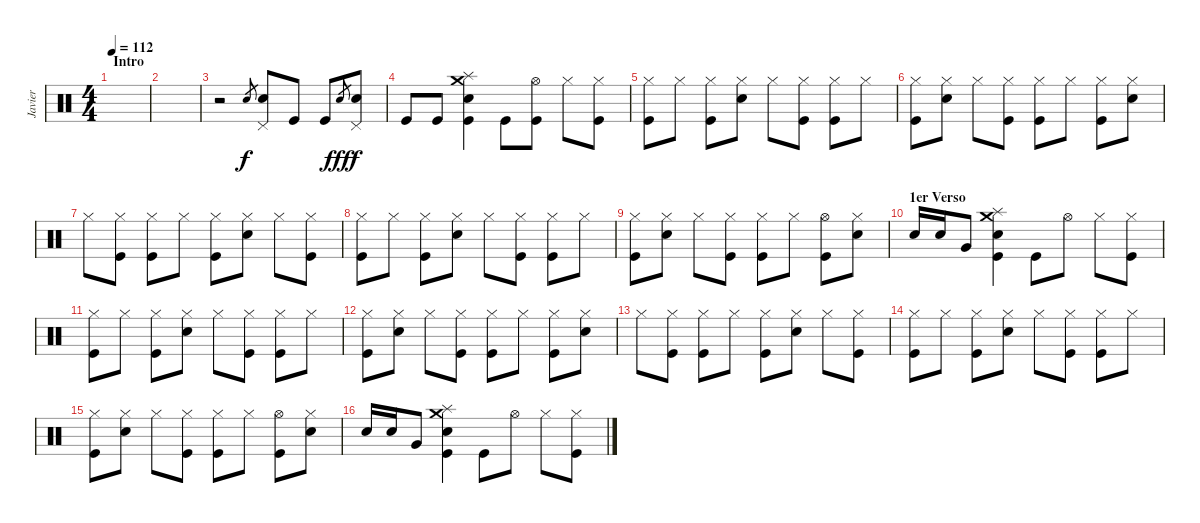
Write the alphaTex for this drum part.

\track ("Javier" "Javier") {instrument percussion}
\staff {score}
\articulation defaults
\ts (4 4)
\section ("" "Intro")
\tempo 112
\clef neutral
\ks c
|
|
r.2 "Snare (hit) 2".8{gr} ("Pedal Hi-Hat (hit)" "Snare (hit) 2").8{dy f} "Kick (hit)".8 "Kick (hit)".8 "Snare (hit) 2".8{gr dy fff} ("Pedal Hi-Hat (hit)" "Snare (hit) 2").8{dy f} |
"Kick (hit)".8 "Kick (hit)".8 ("Crash medium (hit)" "Splash (hit)" "Snare (hit) 2" "Kick (hit)").4 "Kick (hit)".8 ("Hi-Hat (open)" "Kick (hit)").8 "Hi-Hat (closed)".8 ("Hi-Hat (closed)" "Kick (hit)").8 |
("Hi-Hat (closed)" "Kick (hit)").8 "Hi-Hat (closed)".8 ("Hi-Hat (closed)" "Kick (hit)").8 ("Hi-Hat (closed)" "Snare (hit) 2").8 "Hi-Hat (closed)".8 ("Hi-Hat (closed)" "Kick (hit)").8 ("Hi-Hat (closed)" "Kick (hit)").8 "Hi-Hat (closed)".8 |
("Hi-Hat (closed)" "Kick (hit)").8 ("Hi-Hat (closed)" "Snare (hit) 2").8 "Hi-Hat (closed)".8 ("Hi-Hat (closed)" "Kick (hit)").8 ("Hi-Hat (closed)" "Kick (hit)").8 "Hi-Hat (closed)".8 ("Hi-Hat (closed)" "Kick (hit)").8 ("Hi-Hat (closed)" "Snare (hit) 2").8 |
"Hi-Hat (closed)".8 ("Hi-Hat (closed)" "Kick (hit)").8 ("Hi-Hat (closed)" "Kick (hit)").8 "Hi-Hat (closed)".8 ("Hi-Hat (closed)" "Kick (hit)").8 ("Hi-Hat (closed)" "Snare (hit) 2").8 "Hi-Hat (closed)".8 ("Hi-Hat (closed)" "Kick (hit)").8 |
("Hi-Hat (closed)" "Kick (hit)").8 "Hi-Hat (closed)".8 ("Hi-Hat (closed)" "Kick (hit)").8 ("Hi-Hat (closed)" "Snare (hit) 2").8 "Hi-Hat (closed)".8 ("Hi-Hat (closed)" "Kick (hit)").8 ("Hi-Hat (closed)" "Kick (hit)").8 "Hi-Hat (closed)".8 |
("Hi-Hat (closed)" "Kick (hit)").8 ("Hi-Hat (closed)" "Snare (hit) 2").8 "Hi-Hat (closed)".8 ("Hi-Hat (closed)" "Kick (hit)").8 ("Hi-Hat (closed)" "Kick (hit)").8 "Hi-Hat (closed)".8 ("Hi-Hat (open)" "Kick (hit)").8 ("Hi-Hat (closed)" "Snare (hit) 2").8 |
\section ("" "1er Verso")
"Snare (hit) 2".16 "Snare (hit) 2".16 "Very Low Tom (hit)".8 ("Crash medium (hit)" "Splash (hit)" "Snare (hit) 2" "Kick (hit)").4 "Kick (hit)".8 "Hi-Hat (open)".8 "Hi-Hat (closed)".8 ("Hi-Hat (closed)" "Kick (hit)").8 |
("Hi-Hat (closed)" "Kick (hit)").8 "Hi-Hat (closed)".8 ("Hi-Hat (closed)" "Kick (hit)").8 ("Hi-Hat (closed)" "Snare (hit) 2").8 "Hi-Hat (closed)".8 ("Hi-Hat (closed)" "Kick (hit)").8 ("Hi-Hat (closed)" "Kick (hit)").8 "Hi-Hat (closed)".8 |
("Hi-Hat (closed)" "Kick (hit)").8 ("Hi-Hat (closed)" "Snare (hit) 2").8 "Hi-Hat (closed)".8 ("Hi-Hat (closed)" "Kick (hit)").8 ("Hi-Hat (closed)" "Kick (hit)").8 "Hi-Hat (closed)".8 ("Hi-Hat (closed)" "Kick (hit)").8 ("Hi-Hat (closed)" "Snare (hit) 2").8 |
"Hi-Hat (closed)".8 ("Hi-Hat (closed)" "Kick (hit)").8 ("Hi-Hat (closed)" "Kick (hit)").8 "Hi-Hat (closed)".8 ("Hi-Hat (closed)" "Kick (hit)").8 ("Hi-Hat (closed)" "Snare (hit) 2").8 "Hi-Hat (closed)".8 ("Hi-Hat (closed)" "Kick (hit)").8 |
("Hi-Hat (closed)" "Kick (hit)").8 "Hi-Hat (closed)".8 ("Hi-Hat (closed)" "Kick (hit)").8 ("Hi-Hat (closed)" "Snare (hit) 2").8 "Hi-Hat (closed)".8 ("Hi-Hat (closed)" "Kick (hit)").8 ("Hi-Hat (closed)" "Kick (hit)").8 "Hi-Hat (closed)".8 |
("Hi-Hat (closed)" "Kick (hit)").8 ("Hi-Hat (closed)" "Snare (hit) 2").8 "Hi-Hat (closed)".8 ("Hi-Hat (closed)" "Kick (hit)").8 ("Hi-Hat (closed)" "Kick (hit)").8 "Hi-Hat (closed)".8 ("Hi-Hat (open)" "Kick (hit)").8 ("Hi-Hat (closed)" "Snare (hit) 2").8 |
"Snare (hit) 2".16 "Snare (hit) 2".16 "Very Low Tom (hit)".8 ("Crash medium (hit)" "Splash (hit)" "Snare (hit) 2" "Kick (hit)").4 "Kick (hit)".8 "Hi-Hat (open)".8 "Hi-Hat (closed)".8 ("Hi-Hat (closed)" "Kick (hit)").8
